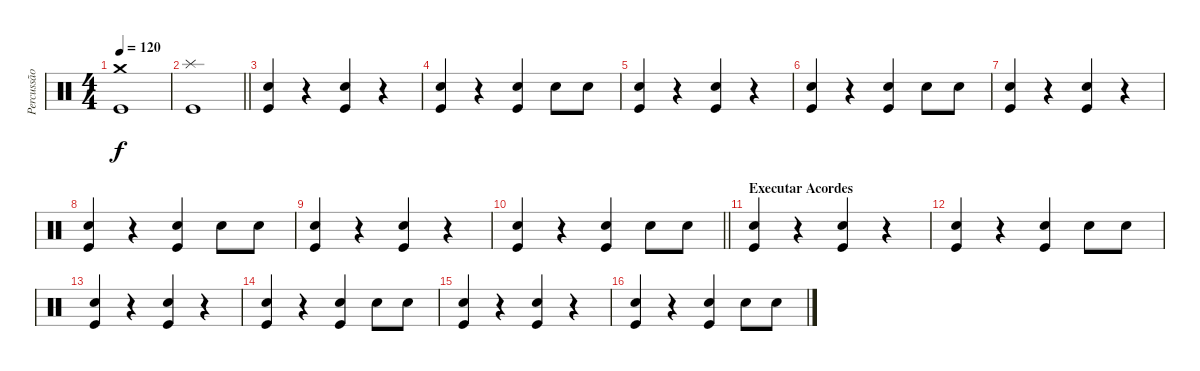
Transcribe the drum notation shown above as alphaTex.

\track ("Percussão" "Percussão") {instrument percussion}
\staff {score}
\articulation defaults
\ts (4 4)
\tempo 120
\clef neutral
\ks c
("Crash medium (hit)" "Kick (hit)").1{dy f} |
\barLineRight lightlight
("Splash (hit)" "Kick (hit)").1 |
("Snare (hit) 2" "Kick (hit)").4 r.4 ("Snare (hit) 2" "Kick (hit)").4 r.4 |
("Snare (hit) 2" "Kick (hit)").4 r.4 ("Snare (hit) 2" "Kick (hit)").4 "Snare (hit) 2".8 "Snare (hit) 2".8 |
("Snare (hit) 2" "Kick (hit)").4 r.4 ("Snare (hit) 2" "Kick (hit)").4 r.4 |
("Snare (hit) 2" "Kick (hit)").4 r.4 ("Snare (hit) 2" "Kick (hit)").4 "Snare (hit) 2".8 "Snare (hit) 2".8 |
("Snare (hit) 2" "Kick (hit)").4 r.4 ("Snare (hit) 2" "Kick (hit)").4 r.4 |
("Snare (hit) 2" "Kick (hit)").4 r.4 ("Snare (hit) 2" "Kick (hit)").4 "Snare (hit) 2".8 "Snare (hit) 2".8 |
("Snare (hit) 2" "Kick (hit)").4 r.4 ("Snare (hit) 2" "Kick (hit)").4 r.4 |
\barLineRight lightlight
("Snare (hit) 2" "Kick (hit)").4 r.4 ("Snare (hit) 2" "Kick (hit)").4 "Snare (hit) 2".8 "Snare (hit) 2".8 |
\section ("" "Executar Acordes")
("Snare (hit) 2" "Kick (hit)").4 r.4 ("Snare (hit) 2" "Kick (hit)").4 r.4 |
("Snare (hit) 2" "Kick (hit)").4 r.4 ("Snare (hit) 2" "Kick (hit)").4 "Snare (hit) 2".8 "Snare (hit) 2".8 |
("Snare (hit) 2" "Kick (hit)").4 r.4 ("Snare (hit) 2" "Kick (hit)").4 r.4 |
("Snare (hit) 2" "Kick (hit)").4 r.4 ("Snare (hit) 2" "Kick (hit)").4 "Snare (hit) 2".8 "Snare (hit) 2".8 |
("Snare (hit) 2" "Kick (hit)").4 r.4 ("Snare (hit) 2" "Kick (hit)").4 r.4 |
("Snare (hit) 2" "Kick (hit)").4 r.4 ("Snare (hit) 2" "Kick (hit)").4 "Snare (hit) 2".8 "Snare (hit) 2".8
